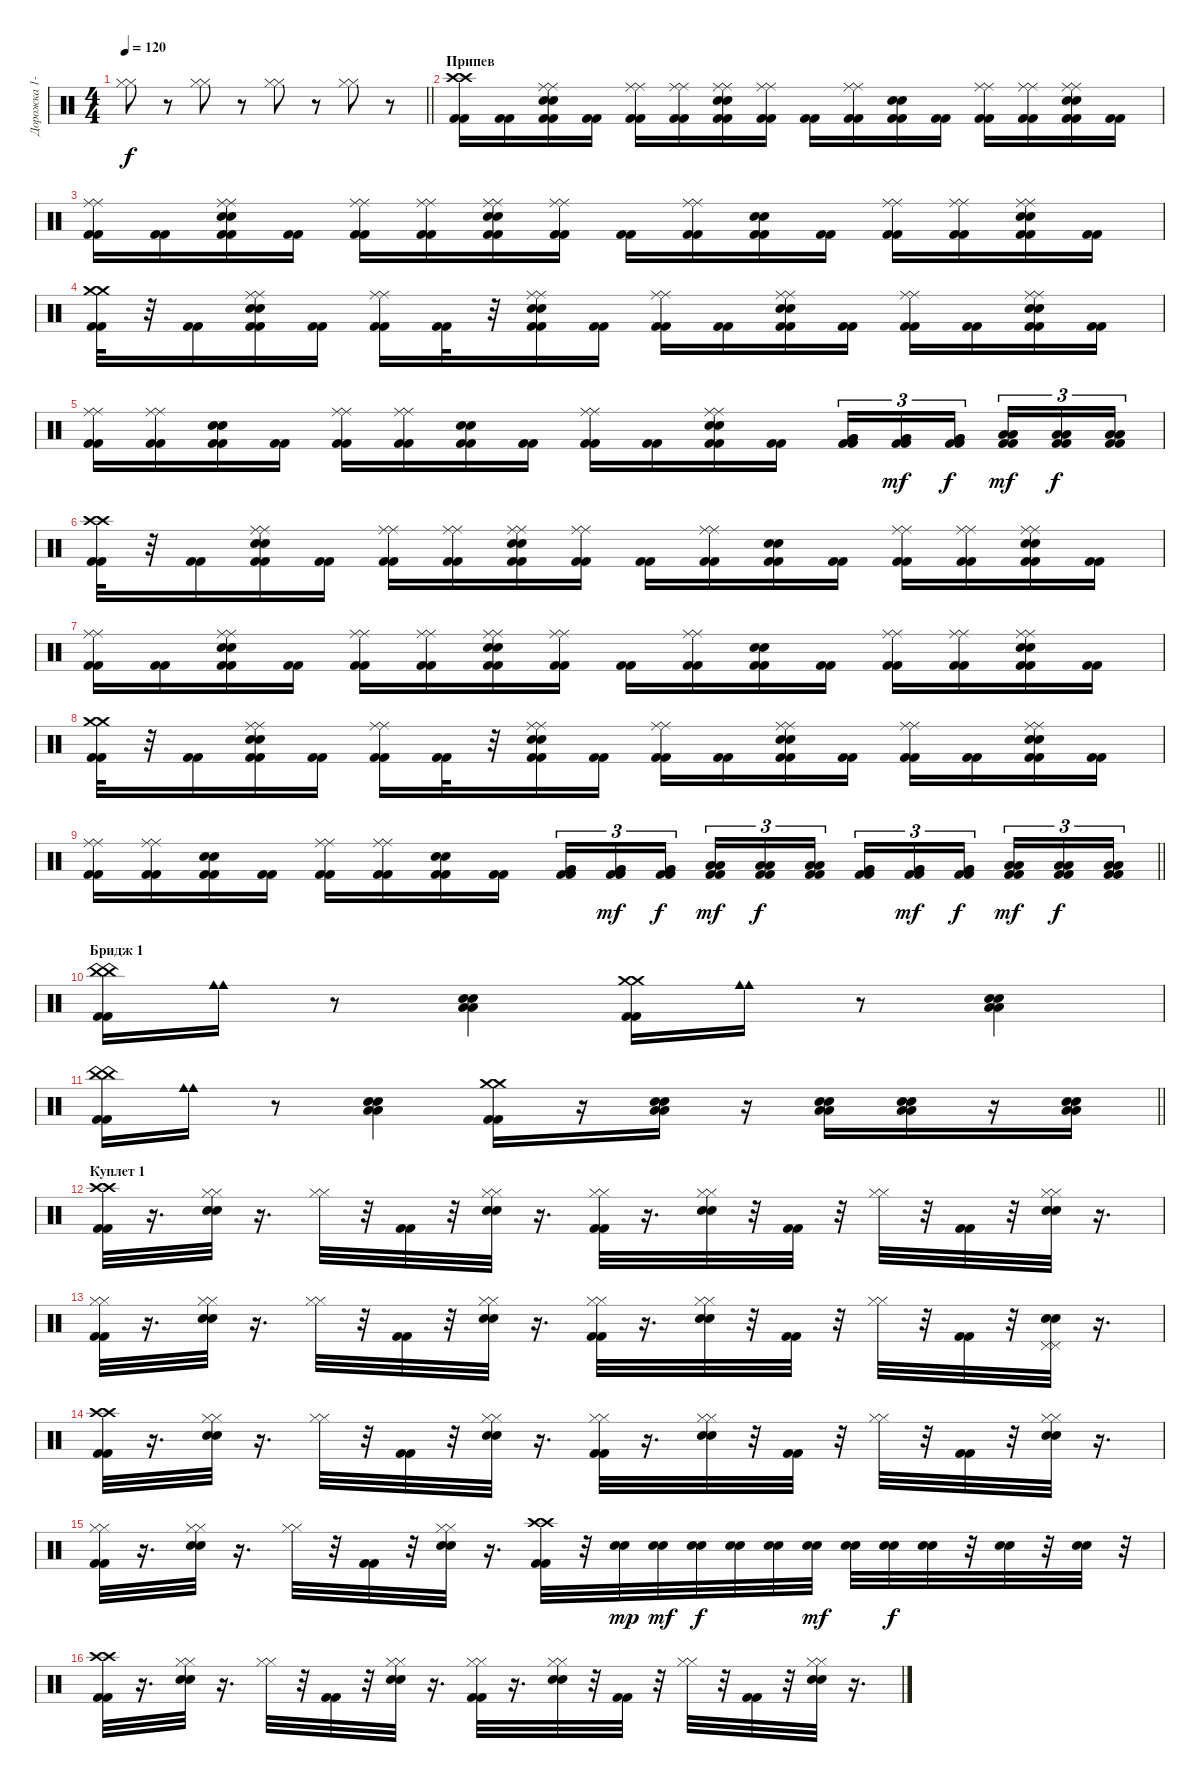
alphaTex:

\track ("Дорожка 1-2" "Дорожка 1-") {instrument percussion}
\staff {score}
\articulation defaults
\ts (4 4)
\tempo 120
\clef neutral
\barLineRight lightlight
\ks c
("Hi-Hat (closed)" "Hi-Hat (closed)").8{dy f} r.8 ("Hi-Hat (closed)" "Hi-Hat (closed)").8 r.8 ("Hi-Hat (closed)" "Hi-Hat (closed)").8 r.8 ("Hi-Hat (closed)" "Hi-Hat (closed)").8 r.8 |
\section ("" "Припев")
("Kick (hit) 2" "Kick (hit) 2" "Crash high (hit)" "Crash high (hit)").16 ("Kick (hit) 2" "Kick (hit) 2").16 ("Kick (hit) 2" "Kick (hit) 2" "Electric Snare (hit)" "Electric Snare (hit)" "Ride (middle)" "Ride (middle)").16 ("Kick (hit) 2" "Kick (hit) 2").16 ("Kick (hit) 2" "Kick (hit) 2" "Ride (middle)" "Ride (middle)").16 ("Kick (hit) 2" "Kick (hit) 2" "Ride (middle)" "Ride (middle)").16 ("Kick (hit) 2" "Kick (hit) 2" "Electric Snare (hit)" "Electric Snare (hit)" "Ride (middle)" "Ride (middle)").16 ("Kick (hit) 2" "Kick (hit) 2" "Ride (middle)" "Ride (middle)").16 ("Kick (hit) 2" "Kick (hit) 2").16 ("Kick (hit) 2" "Kick (hit) 2" "Ride (middle)" "Ride (middle)").16 ("Kick (hit) 2" "Kick (hit) 2" "Electric Snare (hit)" "Electric Snare (hit)").16 ("Kick (hit) 2" "Kick (hit) 2").16 ("Kick (hit) 2" "Kick (hit) 2" "Ride (middle)" "Ride (middle)").16 ("Kick (hit) 2" "Kick (hit) 2" "Ride (middle)" "Ride (middle)").16 ("Kick (hit) 2" "Kick (hit) 2" "Electric Snare (hit)" "Electric Snare (hit)" "Ride (middle)" "Ride (middle)").16 ("Kick (hit) 2" "Kick (hit) 2").16 |
("Kick (hit) 2" "Kick (hit) 2" "Ride (middle)" "Ride (middle)").16 ("Kick (hit) 2" "Kick (hit) 2").16 ("Kick (hit) 2" "Kick (hit) 2" "Electric Snare (hit)" "Electric Snare (hit)" "Ride (middle)" "Ride (middle)").16 ("Kick (hit) 2" "Kick (hit) 2").16 ("Kick (hit) 2" "Kick (hit) 2" "Ride (middle)" "Ride (middle)").16 ("Kick (hit) 2" "Kick (hit) 2" "Ride (middle)" "Ride (middle)").16 ("Kick (hit) 2" "Kick (hit) 2" "Electric Snare (hit)" "Electric Snare (hit)" "Ride (middle)" "Ride (middle)").16 ("Kick (hit) 2" "Kick (hit) 2" "Ride (middle)" "Ride (middle)").16 ("Kick (hit) 2" "Kick (hit) 2").16 ("Kick (hit) 2" "Kick (hit) 2" "Ride (middle)" "Ride (middle)").16 ("Kick (hit) 2" "Kick (hit) 2" "Electric Snare (hit)" "Electric Snare (hit)").16 ("Kick (hit) 2" "Kick (hit) 2").16 ("Kick (hit) 2" "Kick (hit) 2" "Ride (middle)" "Ride (middle)").16 ("Kick (hit) 2" "Kick (hit) 2" "Ride (middle)" "Ride (middle)").16 ("Kick (hit) 2" "Kick (hit) 2" "Electric Snare (hit)" "Electric Snare (hit)" "Ride (middle)" "Ride (middle)").16 ("Kick (hit) 2" "Kick (hit) 2").16 |
("Kick (hit) 2" "Kick (hit) 2" "Crash medium (hit)" "Crash medium (hit)").32 r.32 ("Kick (hit) 2" "Kick (hit) 2").16 ("Kick (hit) 2" "Kick (hit) 2" "Electric Snare (hit)" "Electric Snare (hit)" "Ride (middle)" "Ride (middle)").16 ("Kick (hit) 2" "Kick (hit) 2").16 ("Kick (hit) 2" "Kick (hit) 2" "Ride (middle)" "Ride (middle)").16 ("Kick (hit) 2" "Kick (hit) 2").32 r.32 ("Kick (hit) 2" "Kick (hit) 2" "Electric Snare (hit)" "Electric Snare (hit)" "Ride (middle)" "Ride (middle)").16 ("Kick (hit) 2" "Kick (hit) 2").16 ("Kick (hit) 2" "Kick (hit) 2" "Ride (middle)" "Ride (middle)").16 ("Kick (hit) 2" "Kick (hit) 2").16 ("Kick (hit) 2" "Kick (hit) 2" "Electric Snare (hit)" "Electric Snare (hit)" "Ride (middle)" "Ride (middle)").16 ("Kick (hit) 2" "Kick (hit) 2").16 ("Kick (hit) 2" "Kick (hit) 2" "Ride (middle)" "Ride (middle)").16 ("Kick (hit) 2" "Kick (hit) 2").16 ("Kick (hit) 2" "Kick (hit) 2" "Electric Snare (hit)" "Electric Snare (hit)" "Ride (middle)" "Ride (middle)").16 ("Kick (hit) 2" "Kick (hit) 2").16 |
("Kick (hit) 2" "Kick (hit) 2" "Ride (middle)" "Ride (middle)").16 ("Kick (hit) 2" "Kick (hit) 2" "Ride (middle)" "Ride (middle)").16 ("Kick (hit) 2" "Kick (hit) 2" "Electric Snare (hit)" "Electric Snare (hit)").16 ("Kick (hit) 2" "Kick (hit) 2").16 ("Kick (hit) 2" "Kick (hit) 2" "Ride (middle)" "Ride (middle)").16 ("Kick (hit) 2" "Kick (hit) 2" "Ride (middle)" "Ride (middle)").16 ("Kick (hit) 2" "Kick (hit) 2" "Electric Snare (hit)" "Electric Snare (hit)").16 ("Kick (hit) 2" "Kick (hit) 2").16 ("Kick (hit) 2" "Kick (hit) 2" "Ride (middle)" "Ride (middle)").16 ("Kick (hit) 2" "Kick (hit) 2").16 ("Kick (hit) 2" "Kick (hit) 2" "Electric Snare (hit)" "Electric Snare (hit)" "Ride (middle)" "Ride (middle)").16 ("Kick (hit) 2" "Kick (hit) 2").16 ("Kick (hit) 2" "Kick (hit) 2" "Very Low Tom (hit)" "Very Low Tom (hit)").16{tu (3 2)} ("Kick (hit) 2" "Kick (hit) 2" "Very Low Tom (hit)" "Very Low Tom (hit)").16{tu (3 2) dy mf} ("Kick (hit) 2" "Kick (hit) 2" "Very Low Tom (hit)" "Very Low Tom (hit)").16{tu (3 2) dy f beam splitsecondary} ("Kick (hit) 2" "Kick (hit) 2" "Low Tom (hit)" "Low Tom (hit)").16{tu (3 2) dy mf} ("Kick (hit) 2" "Kick (hit) 2" "Low Tom (hit)" "Low Tom (hit)").16{tu (3 2) dy f} ("Kick (hit) 2" "Kick (hit) 2" "Low Tom (hit)" "Low Tom (hit)").16{tu (3 2)} |
("Kick (hit) 2" "Kick (hit) 2" "Crash high (hit)" "Crash high (hit)").32 r.32 ("Kick (hit) 2" "Kick (hit) 2").16 ("Kick (hit) 2" "Kick (hit) 2" "Electric Snare (hit)" "Electric Snare (hit)" "Ride (middle)" "Ride (middle)").16 ("Kick (hit) 2" "Kick (hit) 2").16 ("Kick (hit) 2" "Kick (hit) 2" "Ride (middle)" "Ride (middle)").16 ("Kick (hit) 2" "Kick (hit) 2" "Ride (middle)" "Ride (middle)").16 ("Kick (hit) 2" "Kick (hit) 2" "Electric Snare (hit)" "Electric Snare (hit)" "Ride (middle)" "Ride (middle)").16 ("Kick (hit) 2" "Kick (hit) 2" "Ride (middle)" "Ride (middle)").16 ("Kick (hit) 2" "Kick (hit) 2").16 ("Kick (hit) 2" "Kick (hit) 2" "Ride (middle)" "Ride (middle)").16 ("Kick (hit) 2" "Kick (hit) 2" "Electric Snare (hit)" "Electric Snare (hit)").16 ("Kick (hit) 2" "Kick (hit) 2").16 ("Kick (hit) 2" "Kick (hit) 2" "Ride (middle)" "Ride (middle)").16 ("Kick (hit) 2" "Kick (hit) 2" "Ride (middle)" "Ride (middle)").16 ("Kick (hit) 2" "Kick (hit) 2" "Electric Snare (hit)" "Electric Snare (hit)" "Ride (middle)" "Ride (middle)").16 ("Kick (hit) 2" "Kick (hit) 2").16 |
("Kick (hit) 2" "Kick (hit) 2" "Ride (middle)" "Ride (middle)").16 ("Kick (hit) 2" "Kick (hit) 2").16 ("Kick (hit) 2" "Kick (hit) 2" "Electric Snare (hit)" "Electric Snare (hit)" "Ride (middle)" "Ride (middle)").16 ("Kick (hit) 2" "Kick (hit) 2").16 ("Kick (hit) 2" "Kick (hit) 2" "Ride (middle)" "Ride (middle)").16 ("Kick (hit) 2" "Kick (hit) 2" "Ride (middle)" "Ride (middle)").16 ("Kick (hit) 2" "Kick (hit) 2" "Electric Snare (hit)" "Electric Snare (hit)" "Ride (middle)" "Ride (middle)").16 ("Kick (hit) 2" "Kick (hit) 2" "Ride (middle)" "Ride (middle)").16 ("Kick (hit) 2" "Kick (hit) 2").16 ("Kick (hit) 2" "Kick (hit) 2" "Ride (middle)" "Ride (middle)").16 ("Kick (hit) 2" "Kick (hit) 2" "Electric Snare (hit)" "Electric Snare (hit)").16 ("Kick (hit) 2" "Kick (hit) 2").16 ("Kick (hit) 2" "Kick (hit) 2" "Ride (middle)" "Ride (middle)").16 ("Kick (hit) 2" "Kick (hit) 2" "Ride (middle)" "Ride (middle)").16 ("Kick (hit) 2" "Kick (hit) 2" "Electric Snare (hit)" "Electric Snare (hit)" "Ride (middle)" "Ride (middle)").16 ("Kick (hit) 2" "Kick (hit) 2").16 |
("Kick (hit) 2" "Kick (hit) 2" "Crash medium (hit)" "Crash medium (hit)").32 r.32 ("Kick (hit) 2" "Kick (hit) 2").16 ("Kick (hit) 2" "Kick (hit) 2" "Electric Snare (hit)" "Electric Snare (hit)" "Ride (middle)" "Ride (middle)").16 ("Kick (hit) 2" "Kick (hit) 2").16 ("Kick (hit) 2" "Kick (hit) 2" "Ride (middle)" "Ride (middle)").16 ("Kick (hit) 2" "Kick (hit) 2").32 r.32 ("Kick (hit) 2" "Kick (hit) 2" "Electric Snare (hit)" "Electric Snare (hit)" "Ride (middle)" "Ride (middle)").16 ("Kick (hit) 2" "Kick (hit) 2").16 ("Kick (hit) 2" "Kick (hit) 2" "Ride (middle)" "Ride (middle)").16 ("Kick (hit) 2" "Kick (hit) 2").16 ("Kick (hit) 2" "Kick (hit) 2" "Electric Snare (hit)" "Electric Snare (hit)" "Ride (middle)" "Ride (middle)").16 ("Kick (hit) 2" "Kick (hit) 2").16 ("Kick (hit) 2" "Kick (hit) 2" "Ride (middle)" "Ride (middle)").16 ("Kick (hit) 2" "Kick (hit) 2").16 ("Kick (hit) 2" "Kick (hit) 2" "Electric Snare (hit)" "Electric Snare (hit)" "Ride (middle)" "Ride (middle)").16 ("Kick (hit) 2" "Kick (hit) 2").16 |
\barLineRight lightlight
("Kick (hit) 2" "Kick (hit) 2" "Ride (middle)" "Ride (middle)").16 ("Kick (hit) 2" "Kick (hit) 2" "Ride (middle)" "Ride (middle)").16 ("Kick (hit) 2" "Kick (hit) 2" "Electric Snare (hit)" "Electric Snare (hit)").16 ("Kick (hit) 2" "Kick (hit) 2").16 ("Kick (hit) 2" "Kick (hit) 2" "Ride (middle)" "Ride (middle)").16 ("Kick (hit) 2" "Kick (hit) 2" "Ride (middle)" "Ride (middle)").16 ("Kick (hit) 2" "Kick (hit) 2" "Electric Snare (hit)" "Electric Snare (hit)").16 ("Kick (hit) 2" "Kick (hit) 2").16 ("Kick (hit) 2" "Kick (hit) 2" "Very Low Tom (hit)" "Very Low Tom (hit)").16{tu (3 2)} ("Kick (hit) 2" "Kick (hit) 2" "Very Low Tom (hit)" "Very Low Tom (hit)").16{tu (3 2) dy mf} ("Kick (hit) 2" "Kick (hit) 2" "Very Low Tom (hit)" "Very Low Tom (hit)").16{tu (3 2) dy f beam splitsecondary} ("Kick (hit) 2" "Kick (hit) 2" "Low Tom (hit)" "Low Tom (hit)").16{tu (3 2) dy mf} ("Kick (hit) 2" "Kick (hit) 2" "Low Tom (hit)" "Low Tom (hit)").16{tu (3 2) dy f} ("Kick (hit) 2" "Kick (hit) 2" "Low Tom (hit)" "Low Tom (hit)").16{tu (3 2)} ("Kick (hit) 2" "Kick (hit) 2" "Very Low Tom (hit)" "Very Low Tom (hit)").16{tu (3 2)} ("Kick (hit) 2" "Kick (hit) 2" "Very Low Tom (hit)" "Very Low Tom (hit)").16{tu (3 2) dy mf} ("Kick (hit) 2" "Kick (hit) 2" "Very Low Tom (hit)" "Very Low Tom (hit)").16{tu (3 2) dy f beam splitsecondary} ("Kick (hit) 2" "Kick (hit) 2" "Low Tom (hit)" "Low Tom (hit)").16{tu (3 2) dy mf} ("Kick (hit) 2" "Kick (hit) 2" "Low Tom (hit)" "Low Tom (hit)").16{tu (3 2) dy f} ("Kick (hit) 2" "Kick (hit) 2" "Low Tom (hit)" "Low Tom (hit)").16{tu (3 2)} |
\section ("" "Бридж 1")
("Kick (hit) 2" "Kick (hit) 2" "China (hit)" "China (hit)").16 ("Cowbell medium (hit)" "Cowbell medium (hit)").16 r.8 ("Electric Snare (hit)" "Electric Snare (hit)" "Low Floor Tom (hit)" "Low Floor Tom (hit)").4 ("Kick (hit) 2" "Kick (hit) 2" "Crash medium (hit)" "Crash medium (hit)").16 ("Cowbell medium (hit)" "Cowbell medium (hit)").16 r.8 ("Electric Snare (hit)" "Electric Snare (hit)" "Low Floor Tom (hit)" "Low Floor Tom (hit)").4 |
\barLineRight lightlight
("Kick (hit) 2" "Kick (hit) 2" "China (hit)" "China (hit)").16 ("Cowbell medium (hit)" "Cowbell medium (hit)").16 r.8 ("Electric Snare (hit)" "Electric Snare (hit)" "Low Floor Tom (hit)" "Low Floor Tom (hit)").4 ("Kick (hit) 2" "Kick (hit) 2" "Crash medium (hit)" "Crash medium (hit)").16 r.16 ("Electric Snare (hit)" "Electric Snare (hit)" "Low Floor Tom (hit)" "Low Floor Tom (hit)").16 r.16 ("Electric Snare (hit)" "Electric Snare (hit)" "Low Floor Tom (hit)" "Low Floor Tom (hit)").16 ("Electric Snare (hit)" "Electric Snare (hit)" "Low Floor Tom (hit)" "Low Floor Tom (hit)").16 r.16 ("Electric Snare (hit)" "Electric Snare (hit)" "Low Floor Tom (hit)" "Low Floor Tom (hit)").16 |
\section ("" "Куплет 1")
("Kick (hit) 2" "Kick (hit) 2" "Crash high (hit)" "Crash high (hit)").32 r.16{d} ("Electric Snare (hit)" "Electric Snare (hit)" "Hi-Hat (closed)" "Hi-Hat (closed)").32 r.16{d} ("Hi-Hat (closed)" "Hi-Hat (closed)").32 r.32 ("Kick (hit) 2" "Kick (hit) 2").32 r.32 ("Electric Snare (hit)" "Electric Snare (hit)" "Hi-Hat (closed)" "Hi-Hat (closed)").32 r.16{d} ("Kick (hit) 2" "Kick (hit) 2" "Hi-Hat (closed)" "Hi-Hat (closed)").32 r.16{d} ("Electric Snare (hit)" "Electric Snare (hit)" "Hi-Hat (closed)" "Hi-Hat (closed)").32 r.32 ("Kick (hit) 2" "Kick (hit) 2").32 r.32 ("Hi-Hat (closed)" "Hi-Hat (closed)").32 r.32 ("Kick (hit) 2" "Kick (hit) 2").32 r.32 ("Electric Snare (hit)" "Electric Snare (hit)" "Hi-Hat (closed)" "Hi-Hat (closed)").32 r.16{d} |
("Kick (hit) 2" "Kick (hit) 2" "Hi-Hat (closed)" "Hi-Hat (closed)").32 r.16{d} ("Electric Snare (hit)" "Electric Snare (hit)" "Hi-Hat (closed)" "Hi-Hat (closed)").32 r.16{d} ("Hi-Hat (closed)" "Hi-Hat (closed)").32 r.32 ("Kick (hit) 2" "Kick (hit) 2").32 r.32 ("Electric Snare (hit)" "Electric Snare (hit)" "Hi-Hat (closed)" "Hi-Hat (closed)").32 r.16{d} ("Kick (hit) 2" "Kick (hit) 2" "Hi-Hat (closed)" "Hi-Hat (closed)").32 r.16{d} ("Electric Snare (hit)" "Electric Snare (hit)" "Hi-Hat (closed)" "Hi-Hat (closed)").32 r.32 ("Kick (hit) 2" "Kick (hit) 2").32 r.32 ("Hi-Hat (closed)" "Hi-Hat (closed)").32 r.32 ("Kick (hit) 2" "Kick (hit) 2").32 r.32 ("Electric Snare (hit)" "Electric Snare (hit)" "Pedal Hi-Hat (hit)" "Pedal Hi-Hat (hit)").32 r.16{d} |
("Kick (hit) 2" "Kick (hit) 2" "Crash high (hit)" "Crash high (hit)").32 r.16{d} ("Electric Snare (hit)" "Electric Snare (hit)" "Hi-Hat (closed)" "Hi-Hat (closed)").32 r.16{d} ("Hi-Hat (closed)" "Hi-Hat (closed)").32 r.32 ("Kick (hit) 2" "Kick (hit) 2").32 r.32 ("Electric Snare (hit)" "Electric Snare (hit)" "Hi-Hat (closed)" "Hi-Hat (closed)").32 r.16{d} ("Kick (hit) 2" "Kick (hit) 2" "Hi-Hat (closed)" "Hi-Hat (closed)").32 r.16{d} ("Electric Snare (hit)" "Electric Snare (hit)" "Hi-Hat (closed)" "Hi-Hat (closed)").32 r.32 ("Kick (hit) 2" "Kick (hit) 2").32 r.32 ("Hi-Hat (closed)" "Hi-Hat (closed)").32 r.32 ("Kick (hit) 2" "Kick (hit) 2").32 r.32 ("Electric Snare (hit)" "Electric Snare (hit)" "Hi-Hat (closed)" "Hi-Hat (closed)").32 r.16{d} |
("Kick (hit) 2" "Kick (hit) 2" "Hi-Hat (closed)" "Hi-Hat (closed)").32 r.16{d} ("Electric Snare (hit)" "Electric Snare (hit)" "Hi-Hat (closed)" "Hi-Hat (closed)").32 r.16{d} ("Hi-Hat (closed)" "Hi-Hat (closed)").32 r.32 ("Kick (hit) 2" "Kick (hit) 2").32 r.32 ("Electric Snare (hit)" "Electric Snare (hit)" "Hi-Hat (closed)" "Hi-Hat (closed)").32 r.16{d} ("Kick (hit) 2" "Kick (hit) 2" "Crash high (hit)" "Crash high (hit)").32 r.32 ("Electric Snare (hit)" "Electric Snare (hit)").32{dy mp} ("Electric Snare (hit)" "Electric Snare (hit)").32{dy mf} ("Electric Snare (hit)" "Electric Snare (hit)").32{dy f} ("Electric Snare (hit)" "Electric Snare (hit)").32 ("Electric Snare (hit)" "Electric Snare (hit)").32 ("Electric Snare (hit)" "Electric Snare (hit)").32{dy mf} ("Electric Snare (hit)" "Electric Snare (hit)").32 ("Electric Snare (hit)" "Electric Snare (hit)").32{dy f} ("Electric Snare (hit)" "Electric Snare (hit)").32 r.32 ("Electric Snare (hit)" "Electric Snare (hit)").32 r.32 ("Electric Snare (hit)" "Electric Snare (hit)").32 r.32 |
("Kick (hit) 2" "Kick (hit) 2" "Crash high (hit)" "Crash high (hit)").32 r.16{d} ("Electric Snare (hit)" "Electric Snare (hit)" "Hi-Hat (closed)" "Hi-Hat (closed)").32 r.16{d} ("Hi-Hat (closed)" "Hi-Hat (closed)").32 r.32 ("Kick (hit) 2" "Kick (hit) 2").32 r.32 ("Electric Snare (hit)" "Electric Snare (hit)" "Hi-Hat (closed)" "Hi-Hat (closed)").32 r.16{d} ("Kick (hit) 2" "Kick (hit) 2" "Hi-Hat (closed)" "Hi-Hat (closed)").32 r.16{d} ("Electric Snare (hit)" "Electric Snare (hit)" "Hi-Hat (closed)" "Hi-Hat (closed)").32 r.32 ("Kick (hit) 2" "Kick (hit) 2").32 r.32 ("Hi-Hat (closed)" "Hi-Hat (closed)").32 r.32 ("Kick (hit) 2" "Kick (hit) 2").32 r.32 ("Electric Snare (hit)" "Electric Snare (hit)" "Hi-Hat (closed)" "Hi-Hat (closed)").32 r.16{d}
